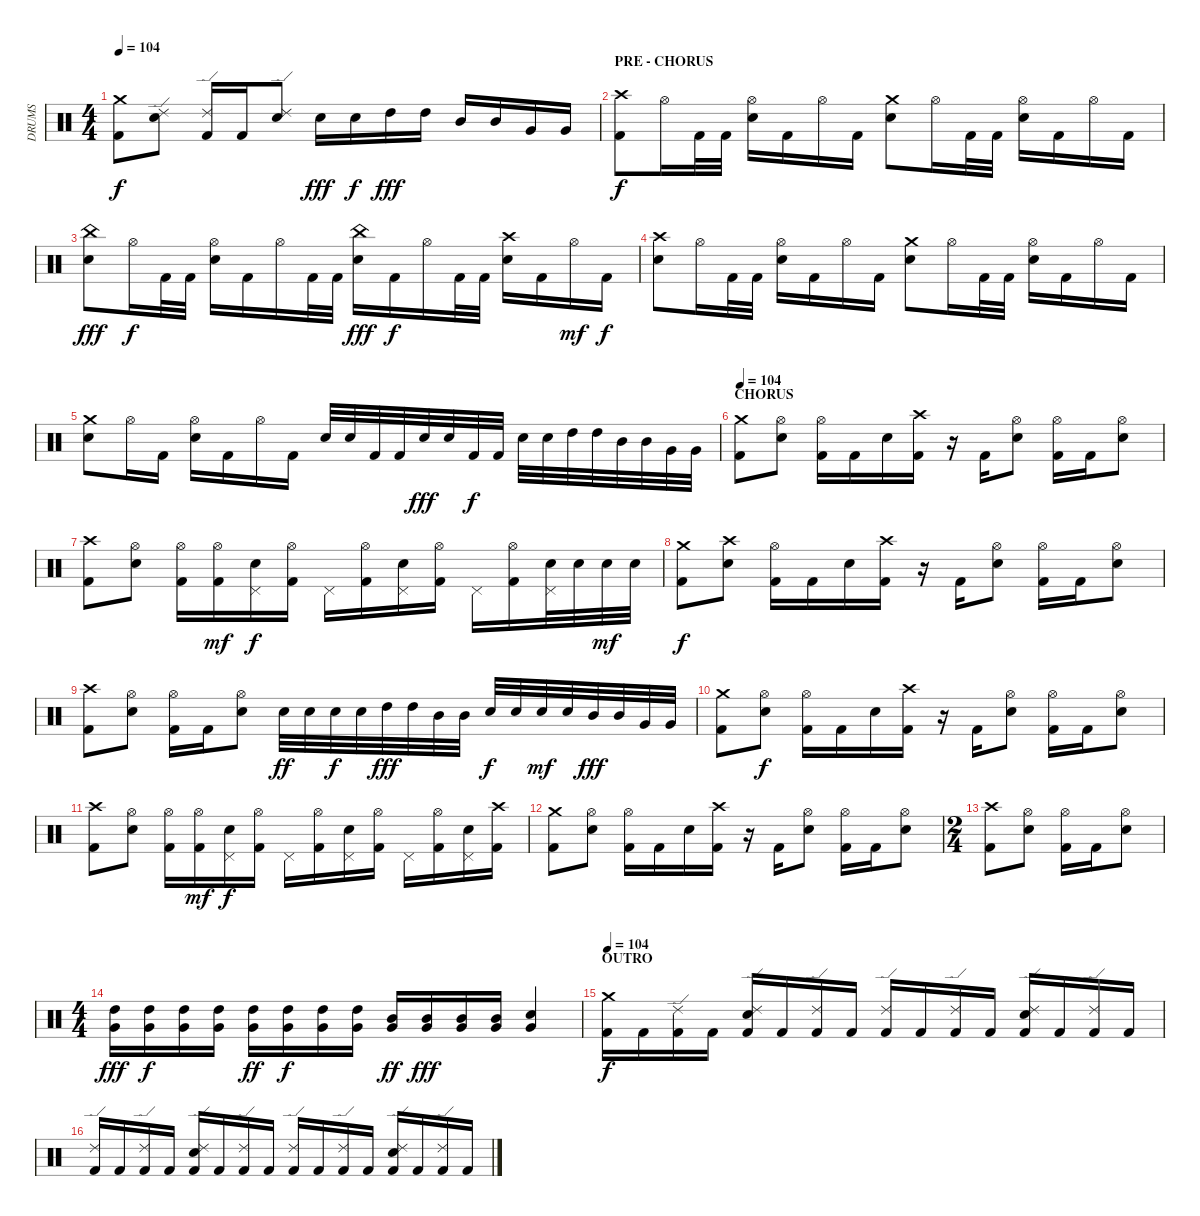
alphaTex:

\track ("DRUMS" "DRUMS") {instrument percussion}
\staff {score}
\articulation defaults
\ts (4 4)
\tempo 104
\clef neutral
\ks c
("Crash medium (hit)" "Kick (hit) 2").8{dy f} ("Ride (edge) 2" "Electric Snare (hit)").8 ("Ride (edge) 2" "Kick (hit) 2").16 "Kick (hit) 2".16 ("Ride (edge) 2" "Electric Snare (hit)").8 "Electric Snare (hit)".16{dy fff} "Electric Snare (hit)".16{dy f} "High Tom (hit)".16{dy fff} "High Tom (hit)".16 "Mid Tom (hit)".16 "Mid Tom (hit)".16 "Very Low Tom (hit)".16 "Very Low Tom (hit)".16 |
\section ("" "PRE - CHORUS")
("Crash high (hit)" "Kick (hit) 2").8{dy f} "Hi-Hat (open)".16 "Kick (hit) 2".32 "Kick (hit) 2".32 ("Hi-Hat (open)" "Electric Snare (hit)").16 "Kick (hit) 2".16 "Hi-Hat (open)".16 "Kick (hit) 2".16 ("Crash medium (hit)" "Electric Snare (hit)").8 "Hi-Hat (open)".16 "Kick (hit) 2".32 "Kick (hit) 2".32 ("Hi-Hat (open)" "Electric Snare (hit)").16 "Kick (hit) 2".16 "Hi-Hat (open)".16 "Kick (hit) 2".16 |
("China (hit)" "Electric Snare (hit)").8{dy fff} "Hi-Hat (open)".16{dy f} "Kick (hit) 2".32 "Kick (hit) 2".32 ("Hi-Hat (open)" "Electric Snare (hit)").16 "Kick (hit) 2".16 "Hi-Hat (open)".16 "Kick (hit) 2".32 "Kick (hit) 2".32 ("China (hit)" "Electric Snare (hit)").16{dy fff} "Kick (hit) 2".16{dy f} "Hi-Hat (open)".16 "Kick (hit) 2".32 "Kick (hit) 2".32 ("Crash high (hit)" "Electric Snare (hit)").16 "Kick (hit) 2".16 "Hi-Hat (open)".16{dy mf} "Kick (hit) 2".16{dy f} |
("Crash high (hit)" "Electric Snare (hit)").8 "Hi-Hat (open)".16 "Kick (hit) 2".32 "Kick (hit) 2".32 ("Hi-Hat (open)" "Electric Snare (hit)").16 "Kick (hit) 2".16 "Hi-Hat (open)".16 "Kick (hit) 2".16 ("Crash medium (hit)" "Electric Snare (hit)").8 "Hi-Hat (open)".16 "Kick (hit) 2".32 "Kick (hit) 2".32 ("Hi-Hat (open)" "Electric Snare (hit)").16 "Kick (hit) 2".16 "Hi-Hat (open)".16 "Kick (hit) 2".16 |
("Crash medium (hit)" "Electric Snare (hit)").8 "Hi-Hat (open)".16 "Kick (hit) 2".16 ("Hi-Hat (open)" "Electric Snare (hit)").16 "Kick (hit) 2".16 "Hi-Hat (open)".16 "Kick (hit) 2".16 "Electric Snare (hit)".32 "Electric Snare (hit)".32 "Kick (hit) 2".32 "Kick (hit) 2".32 "Electric Snare (hit)".32{dy fff} "Electric Snare (hit)".32 "Kick (hit) 2".32{dy f} "Kick (hit) 2".32 "Electric Snare (hit)".32 "Electric Snare (hit)".32 "High Tom (hit)".32 "High Tom (hit)".32 "Mid Tom (hit)".32 "Mid Tom (hit)".32 "Very Low Tom (hit)".32 "Very Low Tom (hit)".32 |
\section ("" "CHORUS")
\tempo 104
("Crash medium (hit)" "Kick (hit) 2").8 ("Hi-Hat (open)" "Electric Snare (hit)").8 ("Hi-Hat (open)" "Kick (hit) 2").16 "Kick (hit) 2".16 "Electric Snare (hit)".16 ("Crash high (hit)" "Kick (hit) 2").16 r.16 "Kick (hit) 2".16 ("Hi-Hat (open)" "Electric Snare (hit)").8 ("Hi-Hat (open)" "Kick (hit) 2").16 "Kick (hit) 2".16 ("Hi-Hat (open)" "Electric Snare (hit)").8 |
("Crash high (hit)" "Kick (hit) 2").8 ("Hi-Hat (open)" "Electric Snare (hit)").8 ("Hi-Hat (open)" "Kick (hit) 2").16 ("Hi-Hat (open)" "Kick (hit) 2").16{dy mf} ("Electric Snare (hit)" "Pedal Hi-Hat (hit)").16{dy f} ("Hi-Hat (open)" "Kick (hit) 2").16 "Pedal Hi-Hat (hit)".16 ("Hi-Hat (open)" "Kick (hit) 2").16 ("Electric Snare (hit)" "Pedal Hi-Hat (hit)").16 ("Hi-Hat (open)" "Kick (hit) 2").16 "Pedal Hi-Hat (hit)".16 ("Hi-Hat (open)" "Kick (hit) 2").16 ("Electric Snare (hit)" "Pedal Hi-Hat (hit)").32 "Electric Snare (hit)".32 "Electric Snare (hit)".32{dy mf} "Electric Snare (hit)".32 |
("Crash medium (hit)" "Kick (hit) 2").8{dy f} ("Crash high (hit)" "Electric Snare (hit)").8 ("Hi-Hat (open)" "Kick (hit) 2").16 "Kick (hit) 2".16 "Electric Snare (hit)".16 ("Crash high (hit)" "Kick (hit) 2").16 r.16 "Kick (hit) 2".16 ("Hi-Hat (open)" "Electric Snare (hit)").8 ("Hi-Hat (open)" "Kick (hit) 2").16 "Kick (hit) 2".16 ("Hi-Hat (open)" "Electric Snare (hit)").8 |
("Crash high (hit)" "Kick (hit) 2").8 ("Hi-Hat (open)" "Electric Snare (hit)").8 ("Hi-Hat (open)" "Kick (hit) 2").16 "Kick (hit) 2".16 ("Hi-Hat (open)" "Electric Snare (hit)").8 "Electric Snare (hit)".32{dy ff} "Electric Snare (hit)".32 "Electric Snare (hit)".32{dy f} "Electric Snare (hit)".32 "High Tom (hit)".32{dy fff} "High Tom (hit)".32 "Mid Tom (hit)".32 "Mid Tom (hit)".32 "Electric Snare (hit)".32{dy f} "Electric Snare (hit)".32 "Electric Snare (hit)".32{dy mf} "Electric Snare (hit)".32 "Mid Tom (hit)".32{dy fff} "Mid Tom (hit)".32 "Very Low Tom (hit)".32 "Very Low Tom (hit)".32 |
("Crash medium (hit)" "Kick (hit) 2").8 ("Hi-Hat (open)" "Electric Snare (hit)").8{dy f} ("Hi-Hat (open)" "Kick (hit) 2").16 "Kick (hit) 2".16 "Electric Snare (hit)".16 ("Crash high (hit)" "Kick (hit) 2").16 r.16 "Kick (hit) 2".16 ("Hi-Hat (open)" "Electric Snare (hit)").8 ("Hi-Hat (open)" "Kick (hit) 2").16 "Kick (hit) 2".16 ("Hi-Hat (open)" "Electric Snare (hit)").8 |
("Crash high (hit)" "Kick (hit) 2").8 ("Hi-Hat (open)" "Electric Snare (hit)").8 ("Hi-Hat (open)" "Kick (hit) 2").16 ("Hi-Hat (open)" "Kick (hit) 2").16{dy mf} ("Electric Snare (hit)" "Pedal Hi-Hat (hit)").16{dy f} ("Hi-Hat (open)" "Kick (hit) 2").16 "Pedal Hi-Hat (hit)".16 ("Hi-Hat (open)" "Kick (hit) 2").16 ("Electric Snare (hit)" "Pedal Hi-Hat (hit)").16 ("Hi-Hat (open)" "Kick (hit) 2").16 "Pedal Hi-Hat (hit)".16 ("Hi-Hat (open)" "Kick (hit) 2").16 ("Electric Snare (hit)" "Pedal Hi-Hat (hit)").16 ("Crash high (hit)" "Kick (hit) 2").16 |
("Crash medium (hit)" "Kick (hit) 2").8 ("Hi-Hat (open)" "Electric Snare (hit)").8 ("Hi-Hat (open)" "Kick (hit) 2").16 "Kick (hit) 2".16 "Electric Snare (hit)".16 ("Crash high (hit)" "Kick (hit) 2").16 r.16 "Kick (hit) 2".16 ("Hi-Hat (open)" "Electric Snare (hit)").8 ("Hi-Hat (open)" "Kick (hit) 2").16 "Kick (hit) 2".16 ("Hi-Hat (open)" "Electric Snare (hit)").8 |
\ts (2 4)
("Crash high (hit)" "Kick (hit) 2").8 ("Hi-Hat (open)" "Electric Snare (hit)").8 ("Hi-Hat (open)" "Kick (hit) 2").16 "Kick (hit) 2".16 ("Hi-Hat (open)" "Electric Snare (hit)").8 |
\ts (4 4)
("High Tom (hit)" "Very Low Tom (hit)").16{dy fff} ("High Tom (hit)" "Very Low Tom (hit)").16{dy f} ("High Tom (hit)" "Very Low Tom (hit)").16 ("High Tom (hit)" "Very Low Tom (hit)").16 ("High Tom (hit)" "Very Low Tom (hit)").16{dy ff} ("High Tom (hit)" "Very Low Tom (hit)").16{dy f} ("High Tom (hit)" "Very Low Tom (hit)").16 ("High Tom (hit)" "Very Low Tom (hit)").16 ("Mid Tom (hit)" "Very Low Tom (hit)").16{dy ff} ("Mid Tom (hit)" "Very Low Tom (hit)").16{dy fff} ("Mid Tom (hit)" "Very Low Tom (hit)").16 ("Mid Tom (hit)" "Very Low Tom (hit)").16 ("Electric Snare (hit)" "Very Low Tom (hit)").4 |
\section ("" "OUTRO")
\tempo 104
("Crash medium (hit)" "Kick (hit) 2").16{dy f} "Kick (hit) 2".16 ("Ride (edge) 2" "Kick (hit) 2").16 "Kick (hit) 2".16 ("Ride (edge) 2" "Electric Snare (hit)" "Kick (hit) 2").16 "Kick (hit) 2".16 ("Ride (edge) 2" "Kick (hit) 2").16 "Kick (hit) 2".16 ("Ride (edge) 2" "Kick (hit) 2").16 "Kick (hit) 2".16 ("Ride (edge) 2" "Kick (hit) 2").16 "Kick (hit) 2".16 ("Ride (edge) 2" "Electric Snare (hit)" "Kick (hit) 2").16 "Kick (hit) 2".16 ("Ride (edge) 2" "Kick (hit) 2").16 "Kick (hit) 2".16 |
("Ride (edge) 2" "Kick (hit) 2").16 "Kick (hit) 2".16 ("Ride (edge) 2" "Kick (hit) 2").16 "Kick (hit) 2".16 ("Ride (edge) 2" "Electric Snare (hit)" "Kick (hit) 2").16 "Kick (hit) 2".16 ("Ride (edge) 2" "Kick (hit) 2").16 "Kick (hit) 2".16 ("Ride (edge) 2" "Kick (hit) 2").16 "Kick (hit) 2".16 ("Ride (edge) 2" "Kick (hit) 2").16 "Kick (hit) 2".16 ("Ride (edge) 2" "Electric Snare (hit)" "Kick (hit) 2").16 "Kick (hit) 2".16 ("Ride (edge) 2" "Kick (hit) 2").16 "Kick (hit) 2".16
